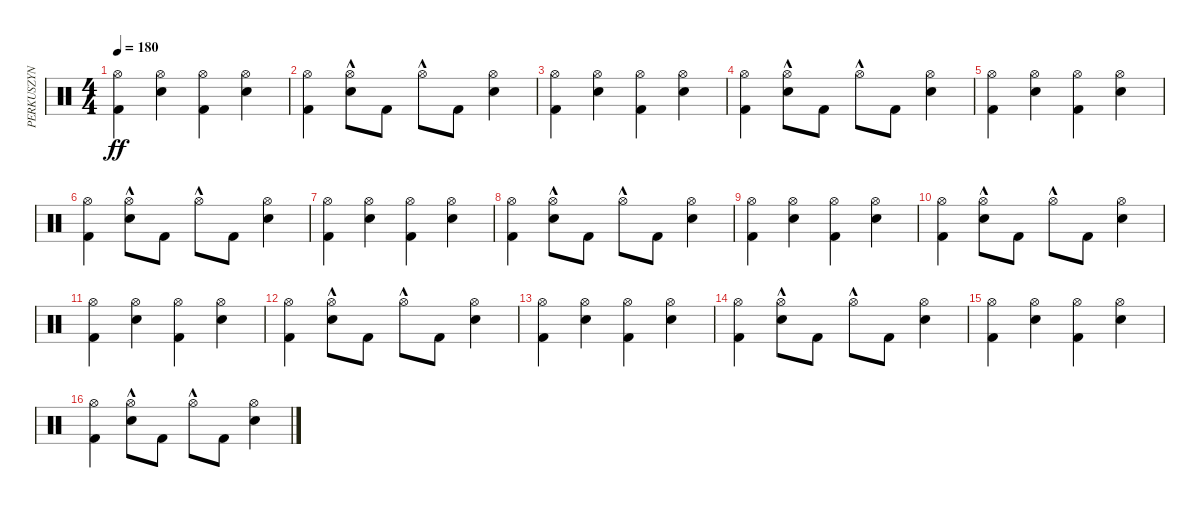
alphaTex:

\track ("PERKUSZYN" "PERKUSZYN") {instrument percussion}
\staff {score}
\articulation defaults
\ts (4 4)
\tempo 180
\clef neutral
\ks c
("Kick (hit) 2" "Hi-Hat (open)").4{dy ff} ("Snare (hit) 2" "Hi-Hat (open)").4 ("Kick (hit) 2" "Hi-Hat (open)").4 ("Snare (hit) 2" "Hi-Hat (open)").4 |
("Kick (hit) 2" "Hi-Hat (open)").4 ("Snare (hit) 2" "Hi-Hat (open)"{hac}).8 "Kick (hit) 2".8 "Hi-Hat (open)"{hac}.8 "Kick (hit) 2".8 ("Snare (hit) 2" "Hi-Hat (open)").4 |
("Kick (hit) 2" "Hi-Hat (open)").4 ("Snare (hit) 2" "Hi-Hat (open)").4 ("Kick (hit) 2" "Hi-Hat (open)").4 ("Snare (hit) 2" "Hi-Hat (open)").4 |
("Kick (hit) 2" "Hi-Hat (open)").4 ("Snare (hit) 2" "Hi-Hat (open)"{hac}).8 "Kick (hit) 2".8 "Hi-Hat (open)"{hac}.8 "Kick (hit) 2".8 ("Snare (hit) 2" "Hi-Hat (open)").4 |
("Kick (hit) 2" "Hi-Hat (open)").4 ("Snare (hit) 2" "Hi-Hat (open)").4 ("Kick (hit) 2" "Hi-Hat (open)").4 ("Snare (hit) 2" "Hi-Hat (open)").4 |
\section ("" "")
("Kick (hit) 2" "Hi-Hat (open)").4 ("Snare (hit) 2" "Hi-Hat (open)"{hac}).8 "Kick (hit) 2".8 "Hi-Hat (open)"{hac}.8 "Kick (hit) 2".8 ("Snare (hit) 2" "Hi-Hat (open)").4 |
("Kick (hit) 2" "Hi-Hat (open)").4 ("Snare (hit) 2" "Hi-Hat (open)").4 ("Kick (hit) 2" "Hi-Hat (open)").4 ("Snare (hit) 2" "Hi-Hat (open)").4 |
("Kick (hit) 2" "Hi-Hat (open)").4 ("Snare (hit) 2" "Hi-Hat (open)"{hac}).8 "Kick (hit) 2".8 "Hi-Hat (open)"{hac}.8 "Kick (hit) 2".8 ("Snare (hit) 2" "Hi-Hat (open)").4 |
("Kick (hit) 2" "Hi-Hat (open)").4 ("Snare (hit) 2" "Hi-Hat (open)").4 ("Kick (hit) 2" "Hi-Hat (open)").4 ("Snare (hit) 2" "Hi-Hat (open)").4 |
("Kick (hit) 2" "Hi-Hat (open)").4 ("Snare (hit) 2" "Hi-Hat (open)"{hac}).8 "Kick (hit) 2".8 "Hi-Hat (open)"{hac}.8 "Kick (hit) 2".8 ("Snare (hit) 2" "Hi-Hat (open)").4 |
("Kick (hit) 2" "Hi-Hat (open)").4 ("Snare (hit) 2" "Hi-Hat (open)").4 ("Kick (hit) 2" "Hi-Hat (open)").4 ("Snare (hit) 2" "Hi-Hat (open)").4 |
("Kick (hit) 2" "Hi-Hat (open)").4 ("Snare (hit) 2" "Hi-Hat (open)"{hac}).8 "Kick (hit) 2".8 "Hi-Hat (open)"{hac}.8 "Kick (hit) 2".8 ("Snare (hit) 2" "Hi-Hat (open)").4 |
("Kick (hit) 2" "Hi-Hat (open)").4 ("Snare (hit) 2" "Hi-Hat (open)").4 ("Kick (hit) 2" "Hi-Hat (open)").4 ("Snare (hit) 2" "Hi-Hat (open)").4 |
("Kick (hit) 2" "Hi-Hat (open)").4 ("Snare (hit) 2" "Hi-Hat (open)"{hac}).8 "Kick (hit) 2".8 "Hi-Hat (open)"{hac}.8 "Kick (hit) 2".8 ("Snare (hit) 2" "Hi-Hat (open)").4 |
("Kick (hit) 2" "Hi-Hat (open)").4 ("Snare (hit) 2" "Hi-Hat (open)").4 ("Kick (hit) 2" "Hi-Hat (open)").4 ("Snare (hit) 2" "Hi-Hat (open)").4 |
("Kick (hit) 2" "Hi-Hat (open)").4 ("Snare (hit) 2" "Hi-Hat (open)"{hac}).8 "Kick (hit) 2".8 "Hi-Hat (open)"{hac}.8 "Kick (hit) 2".8 ("Snare (hit) 2" "Hi-Hat (open)").4
